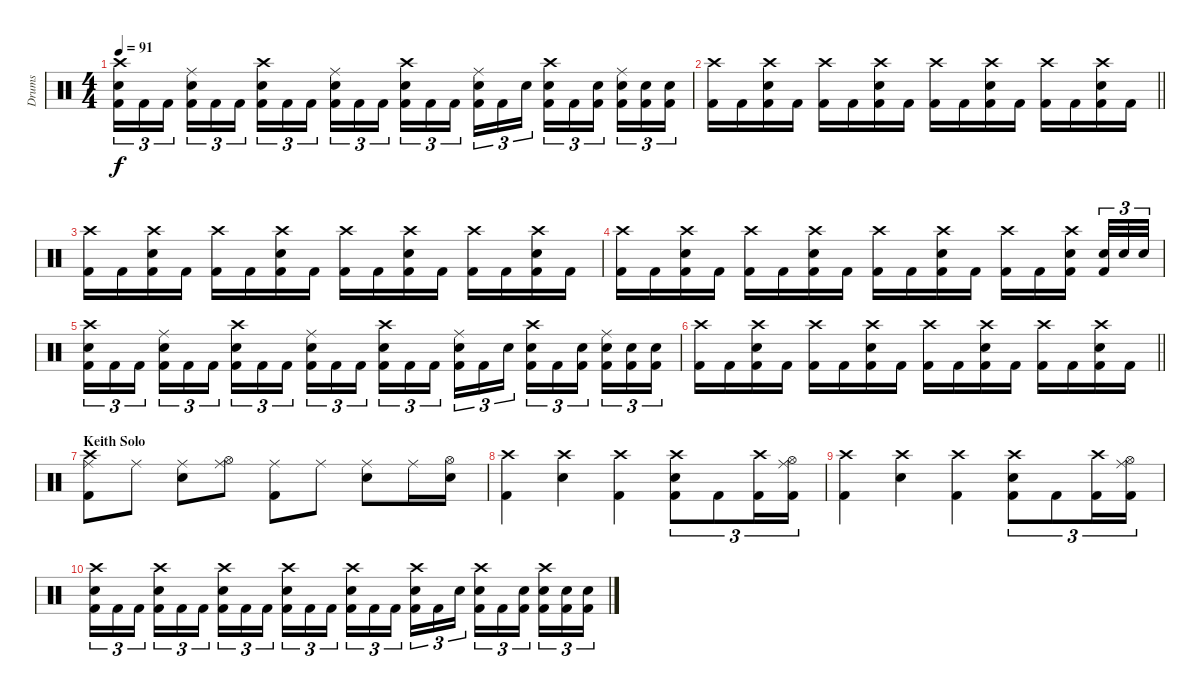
\track ("Drums" "Drums") {instrument percussion}
\staff {score}
\articulation defaults
\ts (4 4)
\tempo 91
\clef neutral
\ks c
("Crash high (hit)" "Snare (hit) 2" "Kick (hit) 2").16{tu (3 2) dy f} "Kick (hit) 2".16{tu (3 2)} "Kick (hit) 2".16{tu (3 2) beam splitsecondary} ("Ride (middle)" "Snare (hit) 2" "Kick (hit) 2").16{tu (3 2)} "Kick (hit) 2".16{tu (3 2)} "Kick (hit) 2".16{tu (3 2)} ("Crash high (hit)" "Snare (hit) 2" "Kick (hit) 2").16{tu (3 2)} "Kick (hit) 2".16{tu (3 2)} "Kick (hit) 2".16{tu (3 2) beam splitsecondary} ("Ride (middle)" "Snare (hit) 2" "Kick (hit) 2").16{tu (3 2)} "Kick (hit) 2".16{tu (3 2)} "Kick (hit) 2".16{tu (3 2)} ("Crash high (hit)" "Snare (hit) 2" "Kick (hit) 2").16{tu (3 2)} "Kick (hit) 2".16{tu (3 2)} "Kick (hit) 2".16{tu (3 2) beam splitsecondary} ("Ride (middle)" "Snare (hit) 2" "Kick (hit) 2").16{tu (3 2)} "Kick (hit) 2".16{tu (3 2)} "Snare (hit) 2".16{tu (3 2)} ("Crash high (hit)" "Snare (hit) 2" "Kick (hit) 2").16{tu (3 2)} "Kick (hit) 2".16{tu (3 2)} ("Snare (hit) 2" "Kick (hit) 2").16{tu (3 2) beam splitsecondary} ("Ride (middle)" "Snare (hit) 2" "Kick (hit) 2").16{tu (3 2)} ("Snare (hit) 2" "Kick (hit) 2").16{tu (3 2)} ("Snare (hit) 2" "Kick (hit) 2").16{tu (3 2)} |
\barLineRight lightlight
("Crash high (hit)" "Kick (hit) 2").16 "Kick (hit) 2".16 ("Snare (hit) 2" "Crash high (hit)" "Kick (hit) 2").16 "Kick (hit) 2".16 ("Crash high (hit)" "Kick (hit) 2").16 "Kick (hit) 2".16 ("Snare (hit) 2" "Crash high (hit)" "Kick (hit) 2").16 "Kick (hit) 2".16 ("Crash high (hit)" "Kick (hit) 2").16 "Kick (hit) 2".16 ("Snare (hit) 2" "Crash high (hit)" "Kick (hit) 2").16 "Kick (hit) 2".16 ("Crash high (hit)" "Kick (hit) 2").16 "Kick (hit) 2".16 ("Snare (hit) 2" "Crash high (hit)" "Kick (hit) 2").16 "Kick (hit) 2".16 |
("Crash high (hit)" "Kick (hit) 2").16 "Kick (hit) 2".16 ("Snare (hit) 2" "Crash high (hit)" "Kick (hit) 2").16 "Kick (hit) 2".16 ("Crash high (hit)" "Kick (hit) 2").16 "Kick (hit) 2".16 ("Snare (hit) 2" "Crash high (hit)" "Kick (hit) 2").16 "Kick (hit) 2".16 ("Crash high (hit)" "Kick (hit) 2").16 "Kick (hit) 2".16 ("Snare (hit) 2" "Crash high (hit)" "Kick (hit) 2").16 "Kick (hit) 2".16 ("Crash high (hit)" "Kick (hit) 2").16 "Kick (hit) 2".16 ("Snare (hit) 2" "Crash high (hit)" "Kick (hit) 2").16 "Kick (hit) 2".16 |
("Crash high (hit)" "Kick (hit) 2").16 "Kick (hit) 2".16 ("Snare (hit) 2" "Crash high (hit)" "Kick (hit) 2").16 "Kick (hit) 2".16 ("Crash high (hit)" "Kick (hit) 2").16 "Kick (hit) 2".16 ("Snare (hit) 2" "Crash high (hit)" "Kick (hit) 2").16 "Kick (hit) 2".16 ("Crash high (hit)" "Kick (hit) 2").16 "Kick (hit) 2".16 ("Snare (hit) 2" "Crash high (hit)" "Kick (hit) 2").16 "Kick (hit) 2".16 ("Crash high (hit)" "Kick (hit) 2").16 "Kick (hit) 2".16 ("Snare (hit) 2" "Crash high (hit)" "Kick (hit) 2").16{beam splitsecondary} ("Snare (hit) 2" "Kick (hit) 2").32{tu (3 2)} "Snare (hit) 2".32{tu (3 2)} "Snare (hit) 2".32{tu (3 2)} |
("Crash high (hit)" "Snare (hit) 2" "Kick (hit) 2").16{tu (3 2)} "Kick (hit) 2".16{tu (3 2)} "Kick (hit) 2".16{tu (3 2) beam splitsecondary} ("Ride (middle)" "Snare (hit) 2" "Kick (hit) 2").16{tu (3 2)} "Kick (hit) 2".16{tu (3 2)} "Kick (hit) 2".16{tu (3 2)} ("Crash high (hit)" "Snare (hit) 2" "Kick (hit) 2").16{tu (3 2)} "Kick (hit) 2".16{tu (3 2)} "Kick (hit) 2".16{tu (3 2) beam splitsecondary} ("Ride (middle)" "Snare (hit) 2" "Kick (hit) 2").16{tu (3 2)} "Kick (hit) 2".16{tu (3 2)} "Kick (hit) 2".16{tu (3 2)} ("Crash high (hit)" "Snare (hit) 2" "Kick (hit) 2").16{tu (3 2)} "Kick (hit) 2".16{tu (3 2)} "Kick (hit) 2".16{tu (3 2) beam splitsecondary} ("Ride (middle)" "Snare (hit) 2" "Kick (hit) 2").16{tu (3 2)} "Kick (hit) 2".16{tu (3 2)} "Snare (hit) 2".16{tu (3 2)} ("Crash high (hit)" "Snare (hit) 2" "Kick (hit) 2").16{tu (3 2)} "Kick (hit) 2".16{tu (3 2)} ("Snare (hit) 2" "Kick (hit) 2").16{tu (3 2) beam splitsecondary} ("Ride (middle)" "Snare (hit) 2" "Kick (hit) 2").16{tu (3 2)} ("Snare (hit) 2" "Kick (hit) 2").16{tu (3 2)} ("Snare (hit) 2" "Kick (hit) 2").16{tu (3 2)} |
\barLineRight lightlight
("Crash high (hit)" "Kick (hit) 2").16 "Kick (hit) 2".16 ("Snare (hit) 2" "Crash high (hit)" "Kick (hit) 2").16 "Kick (hit) 2".16 ("Crash high (hit)" "Kick (hit) 2").16 "Kick (hit) 2".16 ("Snare (hit) 2" "Crash high (hit)" "Kick (hit) 2").16 "Kick (hit) 2".16 ("Crash high (hit)" "Kick (hit) 2").16 "Kick (hit) 2".16 ("Snare (hit) 2" "Crash high (hit)" "Kick (hit) 2").16 "Kick (hit) 2".16 ("Crash high (hit)" "Kick (hit) 2").16 "Kick (hit) 2".16 ("Snare (hit) 2" "Crash high (hit)" "Kick (hit) 2").16 "Kick (hit) 2".16 |
\section ("" "Keith Solo")
("Crash high (hit)" "Ride (middle)" "Kick (hit) 2").8 "Ride (middle)".8 ("Ride (middle)" "Snare (hit) 2").8 ("Ride (middle)" "Hi-Hat (open)").8 ("Ride (middle)" "Kick (hit) 2").8 "Ride (middle)".8 ("Ride (middle)" "Snare (hit) 2").8 "Ride (middle)".16 ("Snare (hit) 2" "Hi-Hat (open)").16 |
("Crash high (hit)" "Kick (hit) 2").4 ("Crash high (hit)" "Snare (hit) 2").4 ("Crash high (hit)" "Kick (hit) 2").4 ("Crash high (hit)" "Snare (hit) 2" "Kick (hit) 2").8{tu (3 2)} "Kick (hit) 2".8{tu (3 2)} ("Crash high (hit)" "Kick (hit) 2").16{tu (3 2)} ("Ride (middle)" "Hi-Hat (open)" "Kick (hit) 2").16{tu (3 2)} |
("Crash high (hit)" "Kick (hit) 2").4 ("Crash high (hit)" "Snare (hit) 2").4 ("Crash high (hit)" "Kick (hit) 2").4 ("Crash high (hit)" "Snare (hit) 2" "Kick (hit) 2").8{tu (3 2)} "Kick (hit) 2".8{tu (3 2)} ("Crash high (hit)" "Kick (hit) 2").16{tu (3 2)} ("Ride (middle)" "Hi-Hat (open)" "Kick (hit) 2").16{tu (3 2)} |
("Crash high (hit)" "Snare (hit) 2" "Kick (hit) 2").16{tu (3 2)} "Kick (hit) 2".16{tu (3 2)} "Kick (hit) 2".16{tu (3 2) beam splitsecondary} ("Crash high (hit)" "Snare (hit) 2" "Kick (hit) 2").16{tu (3 2)} "Kick (hit) 2".16{tu (3 2)} "Kick (hit) 2".16{tu (3 2)} ("Crash high (hit)" "Snare (hit) 2" "Kick (hit) 2").16{tu (3 2)} "Kick (hit) 2".16{tu (3 2)} "Kick (hit) 2".16{tu (3 2) beam splitsecondary} ("Crash high (hit)" "Snare (hit) 2" "Kick (hit) 2").16{tu (3 2)} "Kick (hit) 2".16{tu (3 2)} "Kick (hit) 2".16{tu (3 2)} ("Crash high (hit)" "Snare (hit) 2" "Kick (hit) 2").16{tu (3 2)} "Kick (hit) 2".16{tu (3 2)} "Kick (hit) 2".16{tu (3 2) beam splitsecondary} ("Crash high (hit)" "Snare (hit) 2" "Kick (hit) 2").16{tu (3 2)} "Kick (hit) 2".16{tu (3 2)} "Snare (hit) 2".16{tu (3 2)} ("Crash high (hit)" "Snare (hit) 2" "Kick (hit) 2").16{tu (3 2)} "Kick (hit) 2".16{tu (3 2)} ("Snare (hit) 2" "Kick (hit) 2").16{tu (3 2) beam splitsecondary} ("Crash high (hit)" "Snare (hit) 2" "Kick (hit) 2").16{tu (3 2)} ("Snare (hit) 2" "Kick (hit) 2").16{tu (3 2)} ("Snare (hit) 2" "Kick (hit) 2").16{tu (3 2)}
